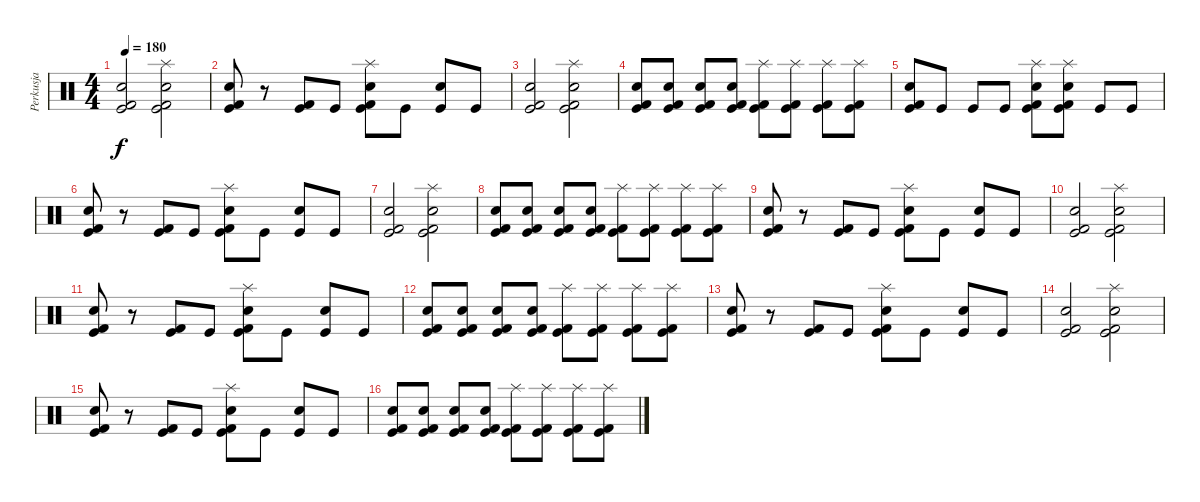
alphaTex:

\track ("Perkusja" "Perkusja") {instrument percussion}
\staff {score}
\articulation defaults
\ts (4 4)
\tempo 180
\clef neutral
\ks c
("Electric Snare (hit)" "Kick (hit) 2" "Kick (hit)").2{dy f} ("Snare (hit) 2" "Splash (hit)" "Kick (hit)" "Kick (hit) 2").2 |
("Electric Snare (hit)" "Kick (hit) 2" "Kick (hit)").8 r.8 ("Kick (hit) 2" "Kick (hit)").8 "Kick (hit)".8 ("Snare (hit) 2" "Splash (hit)" "Kick (hit)" "Kick (hit) 2").8 "Kick (hit)".8 ("Electric Snare (hit)" "Kick (hit)").8 "Kick (hit)".8 |
("Electric Snare (hit)" "Kick (hit) 2" "Kick (hit)").2 ("Snare (hit) 2" "Splash (hit)" "Kick (hit)" "Kick (hit) 2").2 |
("Kick (hit) 2" "Electric Snare (hit)" "Kick (hit)").8 ("Kick (hit) 2" "Electric Snare (hit)" "Kick (hit)").8 ("Kick (hit) 2" "Electric Snare (hit)" "Kick (hit)").8 ("Kick (hit) 2" "Electric Snare (hit)" "Kick (hit)").8 ("Kick (hit) 2" "Splash (hit)" "Kick (hit)").8 ("Kick (hit) 2" "Splash (hit)" "Kick (hit)").8 ("Kick (hit) 2" "Splash (hit)" "Kick (hit)").8 ("Kick (hit) 2" "Splash (hit)" "Kick (hit)").8 |
("Electric Snare (hit)" "Kick (hit) 2" "Kick (hit)").8 "Kick (hit)".8 "Kick (hit)".8 "Kick (hit)".8 ("Snare (hit) 2" "Splash (hit)" "Kick (hit)" "Kick (hit) 2").8 ("Snare (hit) 2" "Splash (hit)" "Kick (hit)" "Kick (hit) 2").8 "Kick (hit)".8 "Kick (hit)".8 |
("Electric Snare (hit)" "Kick (hit) 2" "Kick (hit)").8 r.8 ("Kick (hit) 2" "Kick (hit)").8 "Kick (hit)".8 ("Snare (hit) 2" "Splash (hit)" "Kick (hit)" "Kick (hit) 2").8 "Kick (hit)".8 ("Electric Snare (hit)" "Kick (hit)").8 "Kick (hit)".8 |
("Electric Snare (hit)" "Kick (hit) 2" "Kick (hit)").2 ("Snare (hit) 2" "Splash (hit)" "Kick (hit)" "Kick (hit) 2").2 |
("Kick (hit) 2" "Electric Snare (hit)" "Kick (hit)").8 ("Kick (hit) 2" "Electric Snare (hit)" "Kick (hit)").8 ("Kick (hit) 2" "Electric Snare (hit)" "Kick (hit)").8 ("Kick (hit) 2" "Electric Snare (hit)" "Kick (hit)").8 ("Kick (hit) 2" "Splash (hit)" "Kick (hit)").8 ("Kick (hit) 2" "Splash (hit)" "Kick (hit)").8 ("Kick (hit) 2" "Splash (hit)" "Kick (hit)").8 ("Kick (hit) 2" "Splash (hit)" "Kick (hit)").8 |
("Electric Snare (hit)" "Kick (hit) 2" "Kick (hit)").8 r.8 ("Kick (hit) 2" "Kick (hit)").8 "Kick (hit)".8 ("Snare (hit) 2" "Splash (hit)" "Kick (hit)" "Kick (hit) 2").8 "Kick (hit)".8 ("Electric Snare (hit)" "Kick (hit)").8 "Kick (hit)".8 |
("Electric Snare (hit)" "Kick (hit) 2" "Kick (hit)").2 ("Snare (hit) 2" "Splash (hit)" "Kick (hit)" "Kick (hit) 2").2 |
("Electric Snare (hit)" "Kick (hit) 2" "Kick (hit)").8 r.8 ("Kick (hit) 2" "Kick (hit)").8 "Kick (hit)".8 ("Snare (hit) 2" "Splash (hit)" "Kick (hit)" "Kick (hit) 2").8 "Kick (hit)".8 ("Electric Snare (hit)" "Kick (hit)").8 "Kick (hit)".8 |
("Kick (hit) 2" "Electric Snare (hit)" "Kick (hit)").8 ("Kick (hit) 2" "Electric Snare (hit)" "Kick (hit)").8 ("Kick (hit) 2" "Electric Snare (hit)" "Kick (hit)").8 ("Kick (hit) 2" "Electric Snare (hit)" "Kick (hit)").8 ("Kick (hit) 2" "Splash (hit)" "Kick (hit)").8 ("Kick (hit) 2" "Splash (hit)" "Kick (hit)").8 ("Kick (hit) 2" "Splash (hit)" "Kick (hit)").8 ("Kick (hit) 2" "Splash (hit)" "Kick (hit)").8 |
("Electric Snare (hit)" "Kick (hit) 2" "Kick (hit)").8 r.8 ("Kick (hit) 2" "Kick (hit)").8 "Kick (hit)".8 ("Snare (hit) 2" "Splash (hit)" "Kick (hit)" "Kick (hit) 2").8 "Kick (hit)".8 ("Electric Snare (hit)" "Kick (hit)").8 "Kick (hit)".8 |
("Electric Snare (hit)" "Kick (hit) 2" "Kick (hit)").2 ("Snare (hit) 2" "Splash (hit)" "Kick (hit)" "Kick (hit) 2").2 |
("Electric Snare (hit)" "Kick (hit) 2" "Kick (hit)").8 r.8 ("Kick (hit) 2" "Kick (hit)").8 "Kick (hit)".8 ("Snare (hit) 2" "Splash (hit)" "Kick (hit)" "Kick (hit) 2").8 "Kick (hit)".8 ("Electric Snare (hit)" "Kick (hit)").8 "Kick (hit)".8 |
("Kick (hit) 2" "Electric Snare (hit)" "Kick (hit)").8 ("Kick (hit) 2" "Electric Snare (hit)" "Kick (hit)").8 ("Kick (hit) 2" "Electric Snare (hit)" "Kick (hit)").8 ("Kick (hit) 2" "Electric Snare (hit)" "Kick (hit)").8 ("Kick (hit) 2" "Splash (hit)" "Kick (hit)").8 ("Kick (hit) 2" "Splash (hit)" "Kick (hit)").8 ("Kick (hit) 2" "Splash (hit)" "Kick (hit)").8 ("Kick (hit) 2" "Splash (hit)" "Kick (hit)").8
